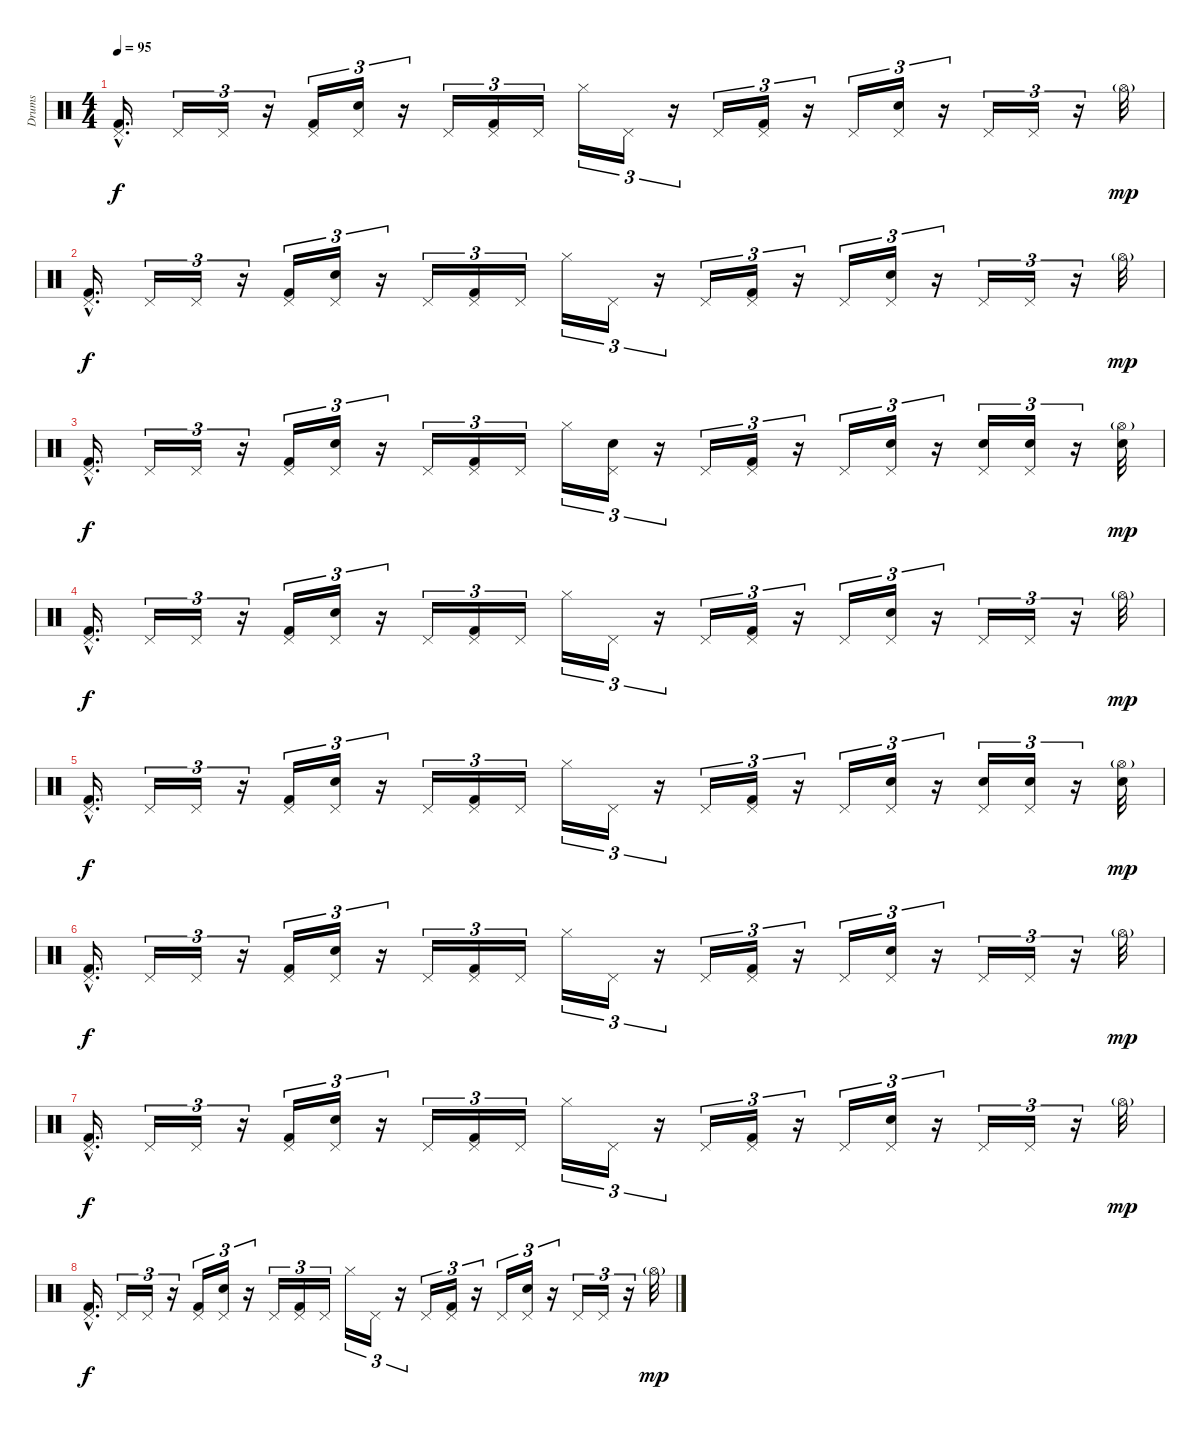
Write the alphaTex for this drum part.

\track ("Drums" "Drums") {instrument percussion}
\staff {score}
\articulation defaults
\ts (4 4)
\tempo 95
\clef neutral
\ks c
("Pedal Hi-Hat (hit)"{hac} "Kick (hit) 2"{hac}).16{d dy f} "Pedal Hi-Hat (hit)".16{tu (3 2)} "Pedal Hi-Hat (hit)".16{tu (3 2)} r.16{tu (3 2)} ("Pedal Hi-Hat (hit)" "Kick (hit) 2").16{tu (3 2)} ("Pedal Hi-Hat (hit)" "Electric Snare (hit)").16{tu (3 2)} r.16{tu (3 2)} "Pedal Hi-Hat (hit)".16{tu (3 2)} ("Pedal Hi-Hat (hit)" "Kick (hit) 2").16{tu (3 2)} "Pedal Hi-Hat (hit)".16{tu (3 2)} "Hi-Hat (closed)".16{tu (3 2)} "Pedal Hi-Hat (hit)".16{tu (3 2)} r.16{tu (3 2)} "Pedal Hi-Hat (hit)".16{tu (3 2)} ("Pedal Hi-Hat (hit)" "Kick (hit) 2").16{tu (3 2)} r.16{tu (3 2)} "Pedal Hi-Hat (hit)".16{tu (3 2)} ("Pedal Hi-Hat (hit)" "Electric Snare (hit)").16{tu (3 2)} r.16{tu (3 2)} "Pedal Hi-Hat (hit)".16{tu (3 2)} "Pedal Hi-Hat (hit)".16{tu (3 2)} r.16{tu (3 2)} "Hi-Hat (open)"{g}.32{dy mp} |
("Pedal Hi-Hat (hit)"{hac} "Kick (hit) 2"{hac}).16{d dy f} "Pedal Hi-Hat (hit)".16{tu (3 2)} "Pedal Hi-Hat (hit)".16{tu (3 2)} r.16{tu (3 2)} ("Pedal Hi-Hat (hit)" "Kick (hit) 2").16{tu (3 2)} ("Pedal Hi-Hat (hit)" "Electric Snare (hit)").16{tu (3 2)} r.16{tu (3 2)} "Pedal Hi-Hat (hit)".16{tu (3 2)} ("Pedal Hi-Hat (hit)" "Kick (hit) 2").16{tu (3 2)} "Pedal Hi-Hat (hit)".16{tu (3 2)} "Hi-Hat (closed)".16{tu (3 2)} "Pedal Hi-Hat (hit)".16{tu (3 2)} r.16{tu (3 2)} "Pedal Hi-Hat (hit)".16{tu (3 2)} ("Pedal Hi-Hat (hit)" "Kick (hit) 2").16{tu (3 2)} r.16{tu (3 2)} "Pedal Hi-Hat (hit)".16{tu (3 2)} ("Pedal Hi-Hat (hit)" "Electric Snare (hit)").16{tu (3 2)} r.16{tu (3 2)} "Pedal Hi-Hat (hit)".16{tu (3 2)} "Pedal Hi-Hat (hit)".16{tu (3 2)} r.16{tu (3 2)} "Hi-Hat (open)"{g}.32{dy mp} |
("Pedal Hi-Hat (hit)"{hac} "Kick (hit) 2"{hac}).16{d dy f} "Pedal Hi-Hat (hit)".16{tu (3 2)} "Pedal Hi-Hat (hit)".16{tu (3 2)} r.16{tu (3 2)} ("Pedal Hi-Hat (hit)" "Kick (hit) 2").16{tu (3 2)} ("Pedal Hi-Hat (hit)" "Electric Snare (hit)").16{tu (3 2)} r.16{tu (3 2)} "Pedal Hi-Hat (hit)".16{tu (3 2)} ("Pedal Hi-Hat (hit)" "Kick (hit) 2").16{tu (3 2)} "Pedal Hi-Hat (hit)".16{tu (3 2)} "Hi-Hat (closed)".16{tu (3 2)} ("Pedal Hi-Hat (hit)" "Electric Snare (hit)").16{tu (3 2)} r.16{tu (3 2)} "Pedal Hi-Hat (hit)".16{tu (3 2)} ("Pedal Hi-Hat (hit)" "Kick (hit) 2").16{tu (3 2)} r.16{tu (3 2)} "Pedal Hi-Hat (hit)".16{tu (3 2)} ("Pedal Hi-Hat (hit)" "Electric Snare (hit)").16{tu (3 2)} r.16{tu (3 2)} ("Pedal Hi-Hat (hit)" "Electric Snare (hit)").16{tu (3 2)} ("Pedal Hi-Hat (hit)" "Electric Snare (hit)").16{tu (3 2)} r.16{tu (3 2)} ("Hi-Hat (open)"{g} "Electric Snare (hit)").32{dy mp} |
("Pedal Hi-Hat (hit)"{hac} "Kick (hit) 2"{hac}).16{d dy f} "Pedal Hi-Hat (hit)".16{tu (3 2)} "Pedal Hi-Hat (hit)".16{tu (3 2)} r.16{tu (3 2)} ("Pedal Hi-Hat (hit)" "Kick (hit) 2").16{tu (3 2)} ("Pedal Hi-Hat (hit)" "Electric Snare (hit)").16{tu (3 2)} r.16{tu (3 2)} "Pedal Hi-Hat (hit)".16{tu (3 2)} ("Pedal Hi-Hat (hit)" "Kick (hit) 2").16{tu (3 2)} "Pedal Hi-Hat (hit)".16{tu (3 2)} "Hi-Hat (closed)".16{tu (3 2)} "Pedal Hi-Hat (hit)".16{tu (3 2)} r.16{tu (3 2)} "Pedal Hi-Hat (hit)".16{tu (3 2)} ("Pedal Hi-Hat (hit)" "Kick (hit) 2").16{tu (3 2)} r.16{tu (3 2)} "Pedal Hi-Hat (hit)".16{tu (3 2)} ("Pedal Hi-Hat (hit)" "Electric Snare (hit)").16{tu (3 2)} r.16{tu (3 2)} "Pedal Hi-Hat (hit)".16{tu (3 2)} "Pedal Hi-Hat (hit)".16{tu (3 2)} r.16{tu (3 2)} "Hi-Hat (open)"{g}.32{dy mp} |
("Pedal Hi-Hat (hit)"{hac} "Kick (hit) 2"{hac}).16{d dy f volume 13} "Pedal Hi-Hat (hit)".16{tu (3 2)} "Pedal Hi-Hat (hit)".16{tu (3 2)} r.16{tu (3 2)} ("Pedal Hi-Hat (hit)" "Kick (hit) 2").16{tu (3 2)} ("Pedal Hi-Hat (hit)" "Electric Snare (hit)").16{tu (3 2)} r.16{tu (3 2)} "Pedal Hi-Hat (hit)".16{tu (3 2)} ("Pedal Hi-Hat (hit)" "Kick (hit) 2").16{tu (3 2)} "Pedal Hi-Hat (hit)".16{tu (3 2)} "Hi-Hat (closed)".16{tu (3 2)} "Pedal Hi-Hat (hit)".16{tu (3 2)} r.16{tu (3 2)} "Pedal Hi-Hat (hit)".16{tu (3 2)} ("Pedal Hi-Hat (hit)" "Kick (hit) 2").16{tu (3 2)} r.16{tu (3 2)} "Pedal Hi-Hat (hit)".16{tu (3 2)} ("Pedal Hi-Hat (hit)" "Electric Snare (hit)").16{tu (3 2)} r.16{tu (3 2)} ("Pedal Hi-Hat (hit)" "Electric Snare (hit)").16{tu (3 2)} ("Pedal Hi-Hat (hit)" "Electric Snare (hit)").16{tu (3 2)} r.16{tu (3 2)} ("Hi-Hat (open)"{g} "Electric Snare (hit)").32{dy mp} |
("Pedal Hi-Hat (hit)"{hac} "Kick (hit) 2"{hac}).16{d dy f} "Pedal Hi-Hat (hit)".16{tu (3 2)} "Pedal Hi-Hat (hit)".16{tu (3 2)} r.16{tu (3 2)} ("Pedal Hi-Hat (hit)" "Kick (hit) 2").16{tu (3 2)} ("Pedal Hi-Hat (hit)" "Electric Snare (hit)").16{tu (3 2)} r.16{tu (3 2)} "Pedal Hi-Hat (hit)".16{tu (3 2)} ("Pedal Hi-Hat (hit)" "Kick (hit) 2").16{tu (3 2)} "Pedal Hi-Hat (hit)".16{tu (3 2)} "Hi-Hat (closed)".16{tu (3 2)} "Pedal Hi-Hat (hit)".16{tu (3 2)} r.16{tu (3 2)} "Pedal Hi-Hat (hit)".16{tu (3 2)} ("Pedal Hi-Hat (hit)" "Kick (hit) 2").16{tu (3 2)} r.16{tu (3 2)} "Pedal Hi-Hat (hit)".16{tu (3 2)} ("Pedal Hi-Hat (hit)" "Electric Snare (hit)").16{tu (3 2)} r.16{tu (3 2)} "Pedal Hi-Hat (hit)".16{tu (3 2)} "Pedal Hi-Hat (hit)".16{tu (3 2)} r.16{tu (3 2)} "Hi-Hat (open)"{g}.32{dy mp} |
("Pedal Hi-Hat (hit)"{hac} "Kick (hit) 2"{hac}).16{d dy f} "Pedal Hi-Hat (hit)".16{tu (3 2)} "Pedal Hi-Hat (hit)".16{tu (3 2)} r.16{tu (3 2)} ("Pedal Hi-Hat (hit)" "Kick (hit) 2").16{tu (3 2)} ("Pedal Hi-Hat (hit)" "Electric Snare (hit)").16{tu (3 2)} r.16{tu (3 2)} "Pedal Hi-Hat (hit)".16{tu (3 2)} ("Pedal Hi-Hat (hit)" "Kick (hit) 2").16{tu (3 2)} "Pedal Hi-Hat (hit)".16{tu (3 2)} "Hi-Hat (closed)".16{tu (3 2)} "Pedal Hi-Hat (hit)".16{tu (3 2)} r.16{tu (3 2)} "Pedal Hi-Hat (hit)".16{tu (3 2)} ("Pedal Hi-Hat (hit)" "Kick (hit) 2").16{tu (3 2)} r.16{tu (3 2)} "Pedal Hi-Hat (hit)".16{tu (3 2)} ("Pedal Hi-Hat (hit)" "Electric Snare (hit)").16{tu (3 2)} r.16{tu (3 2)} "Pedal Hi-Hat (hit)".16{tu (3 2)} "Pedal Hi-Hat (hit)".16{tu (3 2)} r.16{tu (3 2)} "Hi-Hat (open)"{g}.32{dy mp} |
("Pedal Hi-Hat (hit)"{hac} "Kick (hit) 2"{hac}).16{d dy f} "Pedal Hi-Hat (hit)".16{tu (3 2)} "Pedal Hi-Hat (hit)".16{tu (3 2)} r.16{tu (3 2)} ("Pedal Hi-Hat (hit)" "Kick (hit) 2").16{tu (3 2)} ("Pedal Hi-Hat (hit)" "Electric Snare (hit)").16{tu (3 2)} r.16{tu (3 2)} "Pedal Hi-Hat (hit)".16{tu (3 2)} ("Pedal Hi-Hat (hit)" "Kick (hit) 2").16{tu (3 2)} "Pedal Hi-Hat (hit)".16{tu (3 2)} "Hi-Hat (closed)".16{tu (3 2)} "Pedal Hi-Hat (hit)".16{tu (3 2)} r.16{tu (3 2)} "Pedal Hi-Hat (hit)".16{tu (3 2)} ("Pedal Hi-Hat (hit)" "Kick (hit) 2").16{tu (3 2)} r.16{tu (3 2)} "Pedal Hi-Hat (hit)".16{tu (3 2)} ("Pedal Hi-Hat (hit)" "Electric Snare (hit)").16{tu (3 2)} r.16{tu (3 2)} "Pedal Hi-Hat (hit)".16{tu (3 2)} "Pedal Hi-Hat (hit)".16{tu (3 2)} r.16{tu (3 2)} "Hi-Hat (open)"{g}.32{dy mp}
